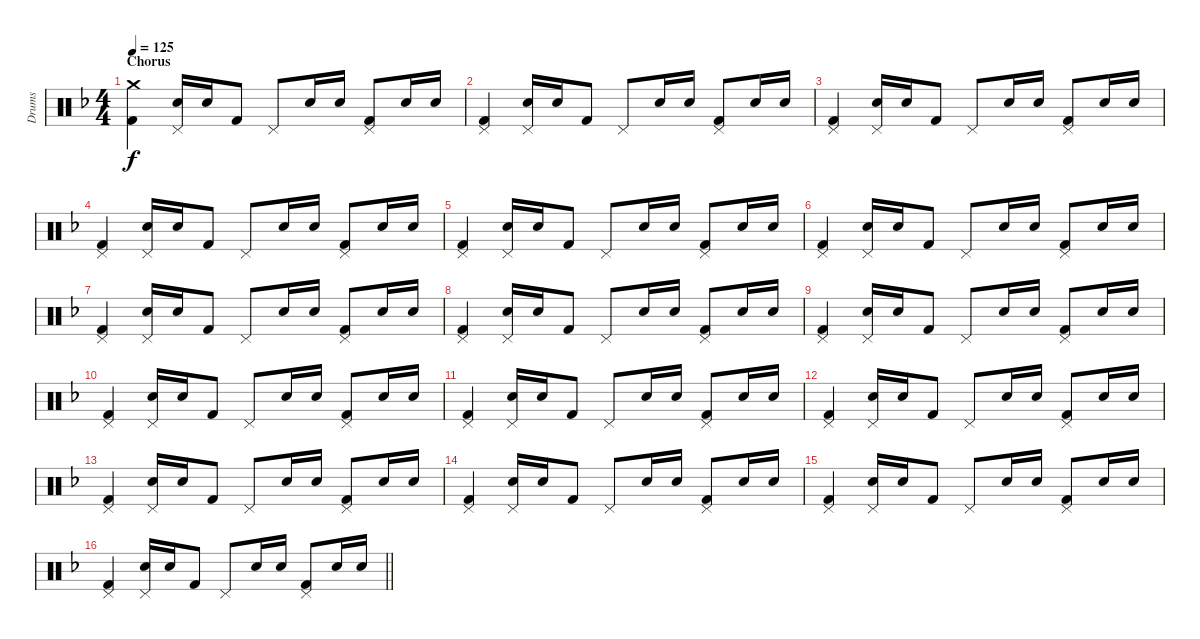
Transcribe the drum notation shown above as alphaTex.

\track ("Drums" "Drums") {instrument percussion}
\staff {score}
\articulation defaults
\ts (4 4)
\section ("" "Chorus")
\tempo 125
\clef neutral
\ks f
("Crash medium (hit)" "Kick (hit) 2").4{dy f} ("Pedal Hi-Hat (hit)" "Snare (hit) 2").16 "Snare (hit) 2".16 "Kick (hit) 2".8 "Pedal Hi-Hat (hit)".8 "Snare (hit) 2".16 "Snare (hit) 2".16 ("Pedal Hi-Hat (hit)" "Kick (hit) 2").8 "Snare (hit) 2".16 "Snare (hit) 2".16 |
("Pedal Hi-Hat (hit)" "Kick (hit) 2").4 ("Pedal Hi-Hat (hit)" "Snare (hit) 2").16 "Snare (hit) 2".16 "Kick (hit) 2".8 "Pedal Hi-Hat (hit)".8 "Snare (hit) 2".16 "Snare (hit) 2".16 ("Pedal Hi-Hat (hit)" "Kick (hit) 2").8 "Snare (hit) 2".16 "Snare (hit) 2".16 |
("Pedal Hi-Hat (hit)" "Kick (hit) 2").4 ("Pedal Hi-Hat (hit)" "Snare (hit) 2").16 "Snare (hit) 2".16 "Kick (hit) 2".8 "Pedal Hi-Hat (hit)".8 "Snare (hit) 2".16 "Snare (hit) 2".16 ("Pedal Hi-Hat (hit)" "Kick (hit) 2").8 "Snare (hit) 2".16 "Snare (hit) 2".16 |
("Pedal Hi-Hat (hit)" "Kick (hit) 2").4 ("Pedal Hi-Hat (hit)" "Snare (hit) 2").16 "Snare (hit) 2".16 "Kick (hit) 2".8 "Pedal Hi-Hat (hit)".8 "Snare (hit) 2".16 "Snare (hit) 2".16 ("Pedal Hi-Hat (hit)" "Kick (hit) 2").8 "Snare (hit) 2".16 "Snare (hit) 2".16 |
("Pedal Hi-Hat (hit)" "Kick (hit) 2").4 ("Pedal Hi-Hat (hit)" "Snare (hit) 2").16 "Snare (hit) 2".16 "Kick (hit) 2".8 "Pedal Hi-Hat (hit)".8 "Snare (hit) 2".16 "Snare (hit) 2".16 ("Pedal Hi-Hat (hit)" "Kick (hit) 2").8 "Snare (hit) 2".16 "Snare (hit) 2".16 |
("Pedal Hi-Hat (hit)" "Kick (hit) 2").4 ("Pedal Hi-Hat (hit)" "Snare (hit) 2").16 "Snare (hit) 2".16 "Kick (hit) 2".8 "Pedal Hi-Hat (hit)".8 "Snare (hit) 2".16 "Snare (hit) 2".16 ("Pedal Hi-Hat (hit)" "Kick (hit) 2").8 "Snare (hit) 2".16 "Snare (hit) 2".16 |
("Pedal Hi-Hat (hit)" "Kick (hit) 2").4 ("Pedal Hi-Hat (hit)" "Snare (hit) 2").16 "Snare (hit) 2".16 "Kick (hit) 2".8 "Pedal Hi-Hat (hit)".8 "Snare (hit) 2".16 "Snare (hit) 2".16 ("Pedal Hi-Hat (hit)" "Kick (hit) 2").8 "Snare (hit) 2".16 "Snare (hit) 2".16 |
("Pedal Hi-Hat (hit)" "Kick (hit) 2").4 ("Pedal Hi-Hat (hit)" "Snare (hit) 2").16 "Snare (hit) 2".16 "Kick (hit) 2".8 "Pedal Hi-Hat (hit)".8 "Snare (hit) 2".16 "Snare (hit) 2".16 ("Pedal Hi-Hat (hit)" "Kick (hit) 2").8 "Snare (hit) 2".16 "Snare (hit) 2".16 |
("Pedal Hi-Hat (hit)" "Kick (hit) 2").4 ("Pedal Hi-Hat (hit)" "Snare (hit) 2").16 "Snare (hit) 2".16 "Kick (hit) 2".8 "Pedal Hi-Hat (hit)".8 "Snare (hit) 2".16 "Snare (hit) 2".16 ("Pedal Hi-Hat (hit)" "Kick (hit) 2").8 "Snare (hit) 2".16 "Snare (hit) 2".16 |
("Pedal Hi-Hat (hit)" "Kick (hit) 2").4 ("Pedal Hi-Hat (hit)" "Snare (hit) 2").16 "Snare (hit) 2".16 "Kick (hit) 2".8 "Pedal Hi-Hat (hit)".8 "Snare (hit) 2".16 "Snare (hit) 2".16 ("Pedal Hi-Hat (hit)" "Kick (hit) 2").8 "Snare (hit) 2".16 "Snare (hit) 2".16 |
("Pedal Hi-Hat (hit)" "Kick (hit) 2").4 ("Pedal Hi-Hat (hit)" "Snare (hit) 2").16 "Snare (hit) 2".16 "Kick (hit) 2".8 "Pedal Hi-Hat (hit)".8 "Snare (hit) 2".16 "Snare (hit) 2".16 ("Pedal Hi-Hat (hit)" "Kick (hit) 2").8 "Snare (hit) 2".16 "Snare (hit) 2".16 |
("Pedal Hi-Hat (hit)" "Kick (hit) 2").4 ("Pedal Hi-Hat (hit)" "Snare (hit) 2").16 "Snare (hit) 2".16 "Kick (hit) 2".8 "Pedal Hi-Hat (hit)".8 "Snare (hit) 2".16 "Snare (hit) 2".16 ("Pedal Hi-Hat (hit)" "Kick (hit) 2").8 "Snare (hit) 2".16 "Snare (hit) 2".16 |
("Pedal Hi-Hat (hit)" "Kick (hit) 2").4 ("Pedal Hi-Hat (hit)" "Snare (hit) 2").16 "Snare (hit) 2".16 "Kick (hit) 2".8 "Pedal Hi-Hat (hit)".8 "Snare (hit) 2".16 "Snare (hit) 2".16 ("Pedal Hi-Hat (hit)" "Kick (hit) 2").8 "Snare (hit) 2".16 "Snare (hit) 2".16 |
("Pedal Hi-Hat (hit)" "Kick (hit) 2").4 ("Pedal Hi-Hat (hit)" "Snare (hit) 2").16 "Snare (hit) 2".16 "Kick (hit) 2".8 "Pedal Hi-Hat (hit)".8 "Snare (hit) 2".16 "Snare (hit) 2".16 ("Pedal Hi-Hat (hit)" "Kick (hit) 2").8 "Snare (hit) 2".16 "Snare (hit) 2".16 |
("Pedal Hi-Hat (hit)" "Kick (hit) 2").4 ("Pedal Hi-Hat (hit)" "Snare (hit) 2").16 "Snare (hit) 2".16 "Kick (hit) 2".8 "Pedal Hi-Hat (hit)".8 "Snare (hit) 2".16 "Snare (hit) 2".16 ("Pedal Hi-Hat (hit)" "Kick (hit) 2").8 "Snare (hit) 2".16 "Snare (hit) 2".16 |
\barLineRight lightlight
("Pedal Hi-Hat (hit)" "Kick (hit) 2").4 ("Pedal Hi-Hat (hit)" "Snare (hit) 2").16 "Snare (hit) 2".16 "Kick (hit) 2".8 "Pedal Hi-Hat (hit)".8 "Snare (hit) 2".16 "Snare (hit) 2".16 ("Pedal Hi-Hat (hit)" "Kick (hit) 2").8 "Snare (hit) 2".16 "Snare (hit) 2".16
